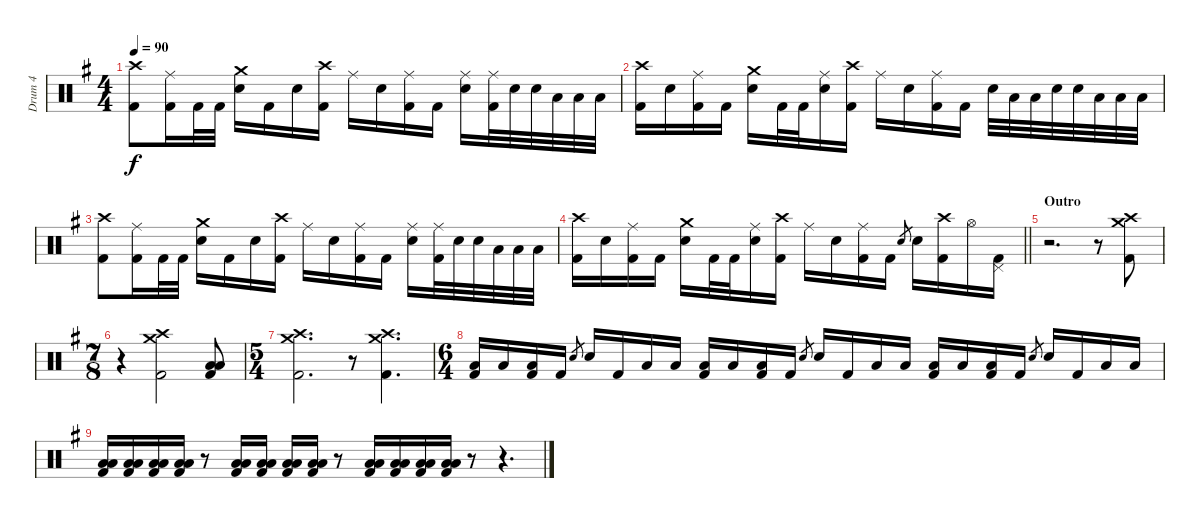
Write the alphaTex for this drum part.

\track ("Drum 4" "Drum 4") {instrument percussion}
\staff {score}
\articulation defaults
\ts (4 4)
\tempo 90
\clef neutral
\ks eminor
("Crash high (hit)" "Kick (hit) 2").8{dy f} ("Ride (middle)" "Kick (hit) 2").16 "Kick (hit) 2".32 "Kick (hit) 2".32 ("Crash medium (hit)" "Snare (hit) 2").16 "Kick (hit) 2".16 "Snare (hit) 2".16 ("Crash high (hit)" "Kick (hit) 2").16 "Ride (middle)".16 "Snare (hit) 2".16 ("Ride (middle)" "Kick (hit) 2").16 "Kick (hit) 2".16 ("Ride (middle)" "Snare (hit) 2").16 ("Ride (middle)" "Kick (hit) 2").32 "Snare (hit) 2".32 "Snare (hit) 2".32 "Low Tom (hit)".32 "Low Tom (hit)".32 "Low Tom (hit)".32 |
("Crash high (hit)" "Kick (hit) 2").16 "Snare (hit) 2".16 ("Ride (middle)" "Kick (hit) 2").16 "Kick (hit) 2".16 ("Crash medium (hit)" "Snare (hit) 2").16 "Kick (hit) 2".32 "Kick (hit) 2".32 ("Ride (middle)" "Snare (hit) 2").16 ("Crash high (hit)" "Kick (hit) 2").16 "Ride (middle)".16 "Snare (hit) 2".16 ("Ride (middle)" "Kick (hit) 2").16 "Kick (hit) 2".16 "Snare (hit) 2".32 "Low Floor Tom (hit)".32 "Low Floor Tom (hit)".32 "Snare (hit) 2".32 "Snare (hit) 2".32 "Low Tom (hit)".32 "Low Tom (hit)".32 "Low Tom (hit)".32 |
("Crash high (hit)" "Kick (hit) 2").8 ("Ride (middle)" "Kick (hit) 2").16 "Kick (hit) 2".32 "Kick (hit) 2".32 ("Crash medium (hit)" "Snare (hit) 2").16 "Kick (hit) 2".16 "Snare (hit) 2".16 ("Crash high (hit)" "Kick (hit) 2").16 "Ride (middle)".16 "Snare (hit) 2".16 ("Ride (middle)" "Kick (hit) 2").16 "Kick (hit) 2".16 ("Ride (middle)" "Snare (hit) 2").16 ("Ride (middle)" "Kick (hit) 2").32 "Snare (hit) 2".32 "Snare (hit) 2".32 "Low Tom (hit)".32 "Low Tom (hit)".32 "Low Tom (hit)".32 |
\barLineRight lightlight
("Crash high (hit)" "Kick (hit) 2").16 "Snare (hit) 2".16 ("Ride (middle)" "Kick (hit) 2").16 "Kick (hit) 2".16 ("Crash medium (hit)" "Snare (hit) 2").16 "Kick (hit) 2".32 "Kick (hit) 2".32 ("Ride (middle)" "Snare (hit) 2").16 ("Crash high (hit)" "Kick (hit) 2").16 "Ride (middle)".16 "Snare (hit) 2".16 ("Ride (middle)" "Kick (hit) 2").16 "Kick (hit) 2".16 "Snare (hit) 2".8{gr} "Snare (hit) 2".16 ("Crash high (hit)" "Kick (hit) 2").16 "Hi-Hat (open)".16 ("Pedal Hi-Hat (hit)" "Kick (hit) 2").16 |
\section ("" "Outro")
r.2{d} r.8 ("Crash high (hit)" "Crash medium (hit)" "Kick (hit) 2").8 |
\ts (7 8)
r.4 ("Crash high (hit)" "Crash medium (hit)" "Kick (hit) 2").2 ("Low Tom (hit)" "Low Floor Tom (hit)" "Kick (hit) 2").8 |
\ts (5 4)
("Crash high (hit)" "Crash medium (hit)" "Kick (hit) 2").2{d} r.8 ("Crash high (hit)" "Crash medium (hit)" "Kick (hit) 2").4{d} |
\ts (6 4)
("Low Floor Tom (hit)" "Kick (hit) 2").16 "Low Tom (hit)".16 ("Low Floor Tom (hit)" "Kick (hit) 2").16 "Kick (hit) 2".16 "Snare (hit) 2".8{gr} "Snare (hit) 2".16 "Kick (hit) 2".16 "Low Floor Tom (hit)".16 "Low Tom (hit)".16 ("Low Floor Tom (hit)" "Kick (hit) 2").16 "Low Tom (hit)".16 ("Low Floor Tom (hit)" "Kick (hit) 2").16 "Kick (hit) 2".16 "Snare (hit) 2".8{gr} "Snare (hit) 2".16 "Kick (hit) 2".16 "Low Floor Tom (hit)".16 "Low Tom (hit)".16 ("Low Floor Tom (hit)" "Kick (hit) 2").16 "Low Tom (hit)".16 ("Low Floor Tom (hit)" "Kick (hit) 2").16 "Kick (hit) 2".16 "Snare (hit) 2".8{gr} "Snare (hit) 2".16 "Kick (hit) 2".16 "Low Floor Tom (hit)".16 "Low Tom (hit)".16 |
("Low Tom (hit)" "Low Floor Tom (hit)" "Kick (hit) 2").16 ("Low Tom (hit)" "Low Floor Tom (hit)" "Kick (hit) 2").16 ("Low Tom (hit)" "Low Floor Tom (hit)" "Kick (hit) 2").16 ("Low Tom (hit)" "Low Floor Tom (hit)" "Kick (hit) 2").16 r.8 ("Low Tom (hit)" "Low Floor Tom (hit)" "Kick (hit) 2").16 ("Low Tom (hit)" "Low Floor Tom (hit)" "Kick (hit) 2").16 ("Low Tom (hit)" "Low Floor Tom (hit)" "Kick (hit) 2").16 ("Low Tom (hit)" "Low Floor Tom (hit)" "Kick (hit) 2").16 r.8 ("Low Tom (hit)" "Low Floor Tom (hit)" "Kick (hit) 2").16 ("Low Tom (hit)" "Low Floor Tom (hit)" "Kick (hit) 2").16 ("Low Tom (hit)" "Low Floor Tom (hit)" "Kick (hit) 2").16 ("Low Tom (hit)" "Low Floor Tom (hit)" "Kick (hit) 2").16 r.8 r.4{d}
